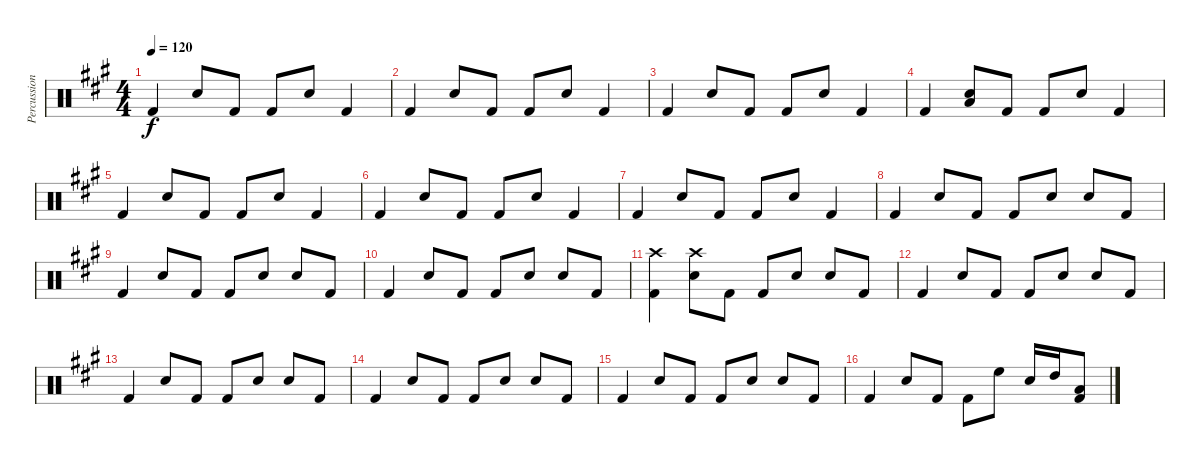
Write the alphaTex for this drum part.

\track ("Percussion" "Percussion") {instrument percussion}
\staff {score}
\articulation defaults
\ts (4 4)
\tempo 120
\clef neutral
\ks a "Kick (hit) 2".4{dy f} "Snare (hit) 2".8 "Kick (hit) 2".8 "Kick (hit) 2".8 "Snare (hit) 2".8 "Kick (hit) 2".4
|
"Kick (hit) 2".4 "Snare (hit) 2".8 "Kick (hit) 2".8 "Kick (hit) 2".8 "Snare (hit) 2".8 "Kick (hit) 2".4 |
"Kick (hit) 2".4 "Snare (hit) 2".8 "Kick (hit) 2".8 "Kick (hit) 2".8 "Snare (hit) 2".8 "Kick (hit) 2".4 |
"Kick (hit) 2".4 ("Snare (hit) 2" "Low Floor Tom (hit)").8 "Kick (hit) 2".8 "Kick (hit) 2".8 "Snare (hit) 2".8 "Kick (hit) 2".4 |
"Kick (hit) 2".4 "Snare (hit) 2".8 "Kick (hit) 2".8 "Kick (hit) 2".8 "Snare (hit) 2".8 "Kick (hit) 2".4 |
"Kick (hit) 2".4 "Snare (hit) 2".8 "Kick (hit) 2".8 "Kick (hit) 2".8 "Snare (hit) 2".8 "Kick (hit) 2".4 |
"Kick (hit) 2".4 "Snare (hit) 2".8 "Kick (hit) 2".8 "Kick (hit) 2".8 "Snare (hit) 2".8 "Kick (hit) 2".4 |
"Kick (hit) 2".4 "Snare (hit) 2".8 "Kick (hit) 2".8 "Kick (hit) 2".8 "Snare (hit) 2".8 "Snare (hit) 2".8 "Kick (hit) 2".8 |
"Kick (hit) 2".4 "Snare (hit) 2".8 "Kick (hit) 2".8 "Kick (hit) 2".8 "Snare (hit) 2".8 "Snare (hit) 2".8 "Kick (hit) 2".8 |
"Kick (hit) 2".4 "Snare (hit) 2".8 "Kick (hit) 2".8 "Kick (hit) 2".8 "Snare (hit) 2".8 "Snare (hit) 2".8 "Kick (hit) 2".8 |
("Crash high (hit)" "Kick (hit) 2").4 ("Crash high (hit)" "Snare (hit) 2").8 "Kick (hit) 2".8 "Kick (hit) 2".8 "Snare (hit) 2".8 "Snare (hit) 2".8 "Kick (hit) 2".8 |
"Kick (hit) 2".4 "Snare (hit) 2".8 "Kick (hit) 2".8 "Kick (hit) 2".8 "Snare (hit) 2".8 "Snare (hit) 2".8 "Kick (hit) 2".8 |
"Kick (hit) 2".4 "Snare (hit) 2".8 "Kick (hit) 2".8 "Kick (hit) 2".8 "Snare (hit) 2".8 "Snare (hit) 2".8 "Kick (hit) 2".8 |
"Kick (hit) 2".4 "Snare (hit) 2".8 "Kick (hit) 2".8 "Kick (hit) 2".8 "Snare (hit) 2".8 "Snare (hit) 2".8 "Kick (hit) 2".8 |
"Kick (hit) 2".4 "Snare (hit) 2".8 "Kick (hit) 2".8 "Kick (hit) 2".8 "Snare (hit) 2".8 "Snare (hit) 2".8 "Kick (hit) 2".8 |
"Kick (hit) 2".4 "Snare (hit) 2".8 "Kick (hit) 2".8 "Kick (hit) 2".8 "High Floor Tom (hit)".8 "Snare (hit) 2".16 "High Tom (hit)".16 ("Low Tom (hit)" "Kick (hit) 2").8
